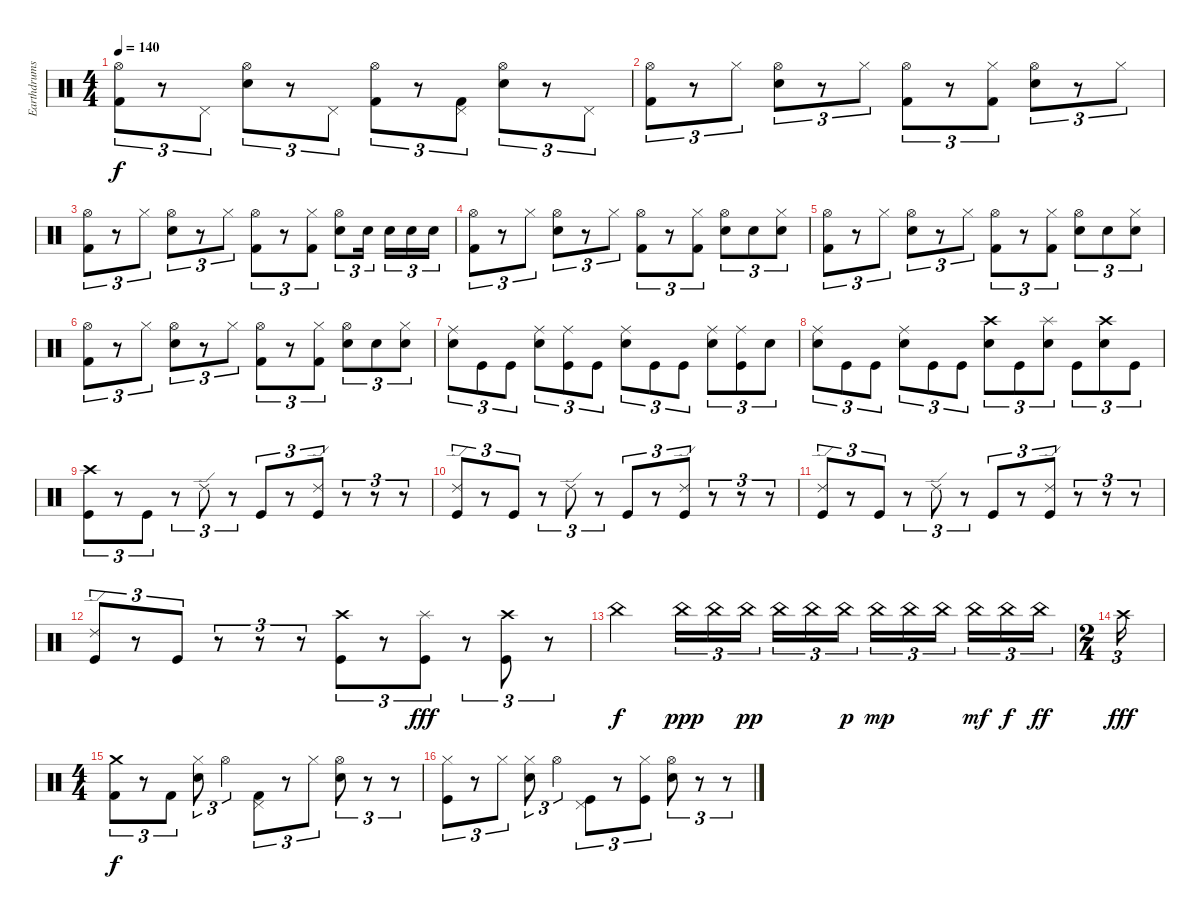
\track ("Earthdrums" "Earthdrums") {instrument percussion}
\staff {score}
\articulation defaults
\ts (4 4)
\tempo 140
\clef neutral
\ks c
("Hi-Hat (open)" "Kick (hit) 2").8{tu (3 2) dy f} r.8{tu (3 2)} "Pedal Hi-Hat (hit)".8{tu (3 2)} ("Hi-Hat (open)" "Snare (hit) 2").8{tu (3 2)} r.8{tu (3 2)} "Pedal Hi-Hat (hit)".8{tu (3 2)} ("Hi-Hat (open)" "Kick (hit) 2").8{tu (3 2)} r.8{tu (3 2)} ("Pedal Hi-Hat (hit)" "Kick (hit) 2").8{tu (3 2)} ("Hi-Hat (open)" "Snare (hit) 2").8{tu (3 2)} r.8{tu (3 2)} "Pedal Hi-Hat (hit)".8{tu (3 2)} |
("Hi-Hat (open)" "Kick (hit) 2").8{tu (3 2)} r.8{tu (3 2)} "Hi-Hat (closed)".8{tu (3 2)} ("Hi-Hat (open)" "Snare (hit) 2").8{tu (3 2)} r.8{tu (3 2)} "Hi-Hat (closed)".8{tu (3 2)} ("Hi-Hat (open)" "Kick (hit) 2").8{tu (3 2)} r.8{tu (3 2)} ("Hi-Hat (closed)" "Kick (hit) 2").8{tu (3 2)} ("Hi-Hat (open)" "Snare (hit) 2").8{tu (3 2)} r.8{tu (3 2)} "Hi-Hat (closed)".8{tu (3 2)} |
("Hi-Hat (open)" "Kick (hit) 2").8{tu (3 2)} r.8{tu (3 2)} "Hi-Hat (closed)".8{tu (3 2)} ("Hi-Hat (open)" "Snare (hit) 2").8{tu (3 2)} r.8{tu (3 2)} "Hi-Hat (closed)".8{tu (3 2)} ("Hi-Hat (open)" "Kick (hit) 2").8{tu (3 2)} r.8{tu (3 2)} ("Hi-Hat (closed)" "Kick (hit) 2").8{tu (3 2)} ("Hi-Hat (open)" "Snare (hit) 2").8{tu (3 2)} "Snare (hit) 2".16{tu (3 2) beam splitsecondary} "Snare (hit) 2".16{tu (3 2)} "Snare (hit) 2".16{tu (3 2)} "Snare (hit) 2".16{tu (3 2)} |
("Hi-Hat (open)" "Kick (hit) 2").8{tu (3 2)} r.8{tu (3 2)} "Hi-Hat (closed)".8{tu (3 2)} ("Hi-Hat (open)" "Snare (hit) 2").8{tu (3 2)} r.8{tu (3 2)} "Hi-Hat (closed)".8{tu (3 2)} ("Hi-Hat (open)" "Kick (hit) 2").8{tu (3 2)} r.8{tu (3 2)} ("Hi-Hat (closed)" "Kick (hit) 2").8{tu (3 2)} ("Hi-Hat (open)" "Snare (hit) 2").8{tu (3 2)} "Snare (hit) 2".8{tu (3 2)} ("Hi-Hat (closed)" "Snare (hit) 2").8{tu (3 2)} |
("Hi-Hat (open)" "Kick (hit) 2").8{tu (3 2)} r.8{tu (3 2)} "Hi-Hat (closed)".8{tu (3 2)} ("Hi-Hat (open)" "Snare (hit) 2").8{tu (3 2)} r.8{tu (3 2)} "Hi-Hat (closed)".8{tu (3 2)} ("Hi-Hat (open)" "Kick (hit) 2").8{tu (3 2)} r.8{tu (3 2)} ("Hi-Hat (closed)" "Kick (hit) 2").8{tu (3 2)} ("Hi-Hat (open)" "Snare (hit) 2").8{tu (3 2)} "Snare (hit) 2".8{tu (3 2)} ("Hi-Hat (closed)" "Snare (hit) 2").8{tu (3 2)} |
("Hi-Hat (open)" "Kick (hit) 2").8{tu (3 2)} r.8{tu (3 2)} "Hi-Hat (closed)".8{tu (3 2)} ("Hi-Hat (open)" "Snare (hit) 2").8{tu (3 2)} r.8{tu (3 2)} "Hi-Hat (closed)".8{tu (3 2)} ("Hi-Hat (open)" "Kick (hit) 2").8{tu (3 2)} r.8{tu (3 2)} ("Hi-Hat (closed)" "Kick (hit) 2").8{tu (3 2)} ("Hi-Hat (open)" "Snare (hit) 2").8{tu (3 2)} "Snare (hit) 2".8{tu (3 2)} ("Hi-Hat (closed)" "Snare (hit) 2").8{tu (3 2)} |
("Ride (middle)" "Snare (hit) 2").8{tu (3 2)} "Kick (hit)".8{tu (3 2)} "Kick (hit)".8{tu (3 2)} ("Ride (middle)" "Snare (hit) 2").8{tu (3 2)} ("Ride (middle)" "Kick (hit)").8{tu (3 2)} "Kick (hit)".8{tu (3 2)} ("Ride (middle)" "Snare (hit) 2").8{tu (3 2)} "Kick (hit)".8{tu (3 2)} "Kick (hit)".8{tu (3 2)} ("Ride (middle)" "Snare (hit) 2").8{tu (3 2)} ("Ride (middle)" "Kick (hit)").8{tu (3 2)} "Snare (hit) 2".8{tu (3 2)} |
("Ride (middle)" "Snare (hit) 2").8{tu (3 2)} "Kick (hit)".8{tu (3 2)} "Kick (hit)".8{tu (3 2)} ("Ride (middle)" "Snare (hit) 2").8{tu (3 2)} "Kick (hit)".8{tu (3 2)} "Kick (hit)".8{tu (3 2)} ("Crash high (hit)" "Snare (hit) 2").8{tu (3 2)} "Kick (hit)".8{tu (3 2)} ("Splash (hit)" "Snare (hit) 2").8{tu (3 2)} "Kick (hit)".8{tu (3 2)} ("Crash high (hit)" "Snare (hit) 2").8{tu (3 2)} "Kick (hit)".8{tu (3 2)} |
("Crash high (hit)" "Kick (hit)").8{tu (3 2)} r.8{tu (3 2)} "Kick (hit)".8{tu (3 2)} r.8{tu (3 2)} "Ride (edge) 2".8{tu (3 2)} r.8{tu (3 2)} "Kick (hit)".8{tu (3 2)} r.8{tu (3 2)} ("Ride (edge) 2" "Kick (hit)").8{tu (3 2)} r.8{tu (3 2)} r.8{tu (3 2)} r.8{tu (3 2)} |
("Ride (edge) 2" "Kick (hit)").8{tu (3 2)} r.8{tu (3 2)} "Kick (hit)".8{tu (3 2)} r.8{tu (3 2)} "Ride (edge) 2".8{tu (3 2)} r.8{tu (3 2)} "Kick (hit)".8{tu (3 2)} r.8{tu (3 2)} ("Ride (edge) 2" "Kick (hit)").8{tu (3 2)} r.8{tu (3 2)} r.8{tu (3 2)} r.8{tu (3 2)} |
("Ride (edge) 2" "Kick (hit)").8{tu (3 2)} r.8{tu (3 2)} "Kick (hit)".8{tu (3 2)} r.8{tu (3 2)} "Ride (edge) 2".8{tu (3 2)} r.8{tu (3 2)} "Kick (hit)".8{tu (3 2)} r.8{tu (3 2)} ("Ride (edge) 2" "Kick (hit)").8{tu (3 2)} r.8{tu (3 2)} r.8{tu (3 2)} r.8{tu (3 2)} |
("Ride (edge) 2" "Kick (hit)").8{tu (3 2)} r.8{tu (3 2)} "Kick (hit)".8{tu (3 2)} r.8{tu (3 2)} r.8{tu (3 2)} r.8{tu (3 2)} ("Crash high (hit)" "Kick (hit)").8{tu (3 2)} r.8{tu (3 2)} ("Splash (hit)" "Kick (hit)").8{tu (3 2) dy fff} r.8{tu (3 2)} ("Crash high (hit)" "Kick (hit)").8{tu (3 2)} r.8{tu (3 2)} |
"China (hit)".2{dy f} "China (hit)".16{tu (3 2) dy ppp} "China (hit)".16{tu (3 2)} "China (hit)".16{tu (3 2) dy pp beam splitsecondary} "China (hit)".16{tu (3 2)} "China (hit)".16{tu (3 2)} "China (hit)".16{tu (3 2) dy p} "China (hit)".16{tu (3 2) dy mp} "China (hit)".16{tu (3 2)} "China (hit)".16{tu (3 2) beam splitsecondary} "China (hit)".16{tu (3 2) dy mf} "China (hit)".16{tu (3 2) dy f} "China (hit)".16{tu (3 2) dy ff} |
\ts (2 4)
"Crash high (hit)".16{tu (3 2) dy fff} |
\ts (4 4)
("Crash medium (hit)" "Kick (hit) 2").8{tu (3 2) dy f} r.8{tu (3 2)} "Kick (hit) 2".8{tu (3 2)} ("Hi-Hat (closed)" "Snare (hit) 2").8{tu (3 2)} "Hi-Hat (open)".4{tu (3 2)} ("Pedal Hi-Hat (hit)" "Kick (hit) 2").8{tu (3 2)} r.8{tu (3 2)} "Hi-Hat (closed)".8{tu (3 2)} ("Hi-Hat (open)" "Snare (hit) 2").8{tu (3 2)} r.8{tu (3 2)} r.8{tu (3 2)} |
("Hi-Hat (closed)" "Kick (hit)").8{tu (3 2)} r.8{tu (3 2)} "Hi-Hat (closed)".8{tu (3 2)} ("Hi-Hat (closed)" "Snare (hit) 2").8{tu (3 2)} "Hi-Hat (open)".4{tu (3 2)} ("Pedal Hi-Hat (hit)" "Kick (hit)").8{tu (3 2)} r.8{tu (3 2)} ("Hi-Hat (closed)" "Kick (hit)").8{tu (3 2)} ("Hi-Hat (open)" "Snare (hit) 2").8{tu (3 2)} r.8{tu (3 2)} r.8{tu (3 2)}
